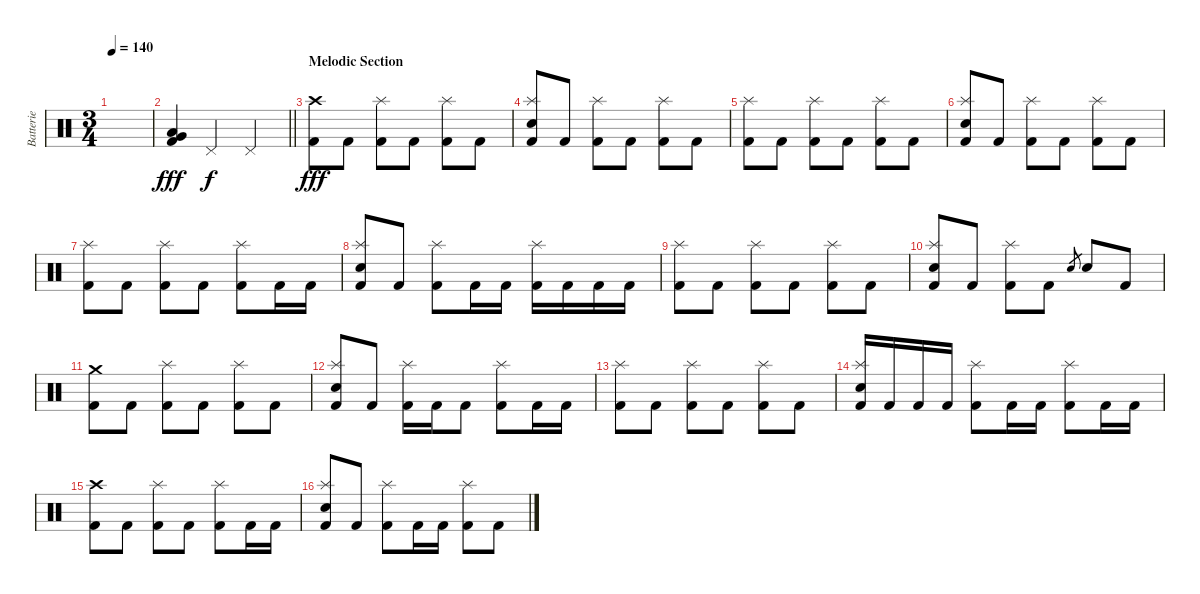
\track ("Batterie" "Batterie") {instrument percussion}
\staff {score}
\articulation defaults
\ts (3 4)
\tempo 140
\clef neutral
\ks c
|
\barLineRight lightlight
("Low Floor Tom (hit)" "Very Low Tom (hit)" "Kick (hit) 2").4{dy fff} "Pedal Hi-Hat (hit)".4{dy f} "Pedal Hi-Hat (hit)".4 |
\section ("" "Melodic Section")
("Crash high (hit)" "Kick (hit) 2").8{dy fff volume 12} "Kick (hit) 2".8 ("Splash (hit)" "Kick (hit) 2").8 "Kick (hit) 2".8 ("Splash (hit)" "Kick (hit) 2").8 "Kick (hit) 2".8 |
("Splash (hit)" "Electric Snare (hit)" "Kick (hit) 2").8 "Kick (hit) 2".8 ("Splash (hit)" "Kick (hit) 2").8 "Kick (hit) 2".8 ("Splash (hit)" "Kick (hit) 2").8 "Kick (hit) 2".8 |
("Splash (hit)" "Kick (hit) 2").8 "Kick (hit) 2".8 ("Splash (hit)" "Kick (hit) 2").8 "Kick (hit) 2".8 ("Splash (hit)" "Kick (hit) 2").8 "Kick (hit) 2".8 |
("Splash (hit)" "Electric Snare (hit)" "Kick (hit) 2").8 "Kick (hit) 2".8 ("Splash (hit)" "Kick (hit) 2").8 "Kick (hit) 2".8 ("Splash (hit)" "Kick (hit) 2").8 "Kick (hit) 2".8 |
("Splash (hit)" "Kick (hit) 2").8 "Kick (hit) 2".8 ("Splash (hit)" "Kick (hit) 2").8 "Kick (hit) 2".8 ("Splash (hit)" "Kick (hit) 2").8 "Kick (hit) 2".16 "Kick (hit) 2".16 |
("Splash (hit)" "Electric Snare (hit)" "Kick (hit) 2").8 "Kick (hit) 2".8 ("Splash (hit)" "Kick (hit) 2").8 "Kick (hit) 2".16 "Kick (hit) 2".16 ("Splash (hit)" "Kick (hit) 2").16 "Kick (hit) 2".16 "Kick (hit) 2".16 "Kick (hit) 2".16 |
("Splash (hit)" "Kick (hit) 2").8 "Kick (hit) 2".8 ("Splash (hit)" "Kick (hit) 2").8 "Kick (hit) 2".8 ("Splash (hit)" "Kick (hit) 2").8 "Kick (hit) 2".8 |
("Splash (hit)" "Electric Snare (hit)" "Kick (hit) 2").8 "Kick (hit) 2".8 ("Splash (hit)" "Kick (hit) 2").8 "Kick (hit) 2".8 "Electric Snare (hit)".8{gr} "Electric Snare (hit)".8 "Kick (hit) 2".8 |
("Crash medium (hit)" "Kick (hit) 2").8 "Kick (hit) 2".8 ("Splash (hit)" "Kick (hit) 2").8 "Kick (hit) 2".8 ("Splash (hit)" "Kick (hit) 2").8 "Kick (hit) 2".8 |
("Splash (hit)" "Electric Snare (hit)" "Kick (hit) 2").8 "Kick (hit) 2".8 ("Splash (hit)" "Kick (hit) 2").16 "Kick (hit) 2".16 "Kick (hit) 2".8 ("Splash (hit)" "Kick (hit) 2").8 "Kick (hit) 2".16 "Kick (hit) 2".16 |
("Splash (hit)" "Kick (hit) 2").8 "Kick (hit) 2".8 ("Splash (hit)" "Kick (hit) 2").8 "Kick (hit) 2".8 ("Splash (hit)" "Kick (hit) 2").8 "Kick (hit) 2".8 |
("Splash (hit)" "Electric Snare (hit)" "Kick (hit) 2").16 "Kick (hit) 2".16 "Kick (hit) 2".16 "Kick (hit) 2".16 ("Splash (hit)" "Kick (hit) 2").8 "Kick (hit) 2".16 "Kick (hit) 2".16 ("Splash (hit)" "Kick (hit) 2").8 "Kick (hit) 2".16 "Kick (hit) 2".16 |
("Crash high (hit)" "Kick (hit) 2").8 "Kick (hit) 2".8 ("Splash (hit)" "Kick (hit) 2").8 "Kick (hit) 2".8 ("Splash (hit)" "Kick (hit) 2").8 "Kick (hit) 2".16 "Kick (hit) 2".16 |
("Splash (hit)" "Electric Snare (hit)" "Kick (hit) 2").8 "Kick (hit) 2".8 ("Splash (hit)" "Kick (hit) 2").8 "Kick (hit) 2".16 "Kick (hit) 2".16 ("Splash (hit)" "Kick (hit) 2").8 "Kick (hit) 2".8
